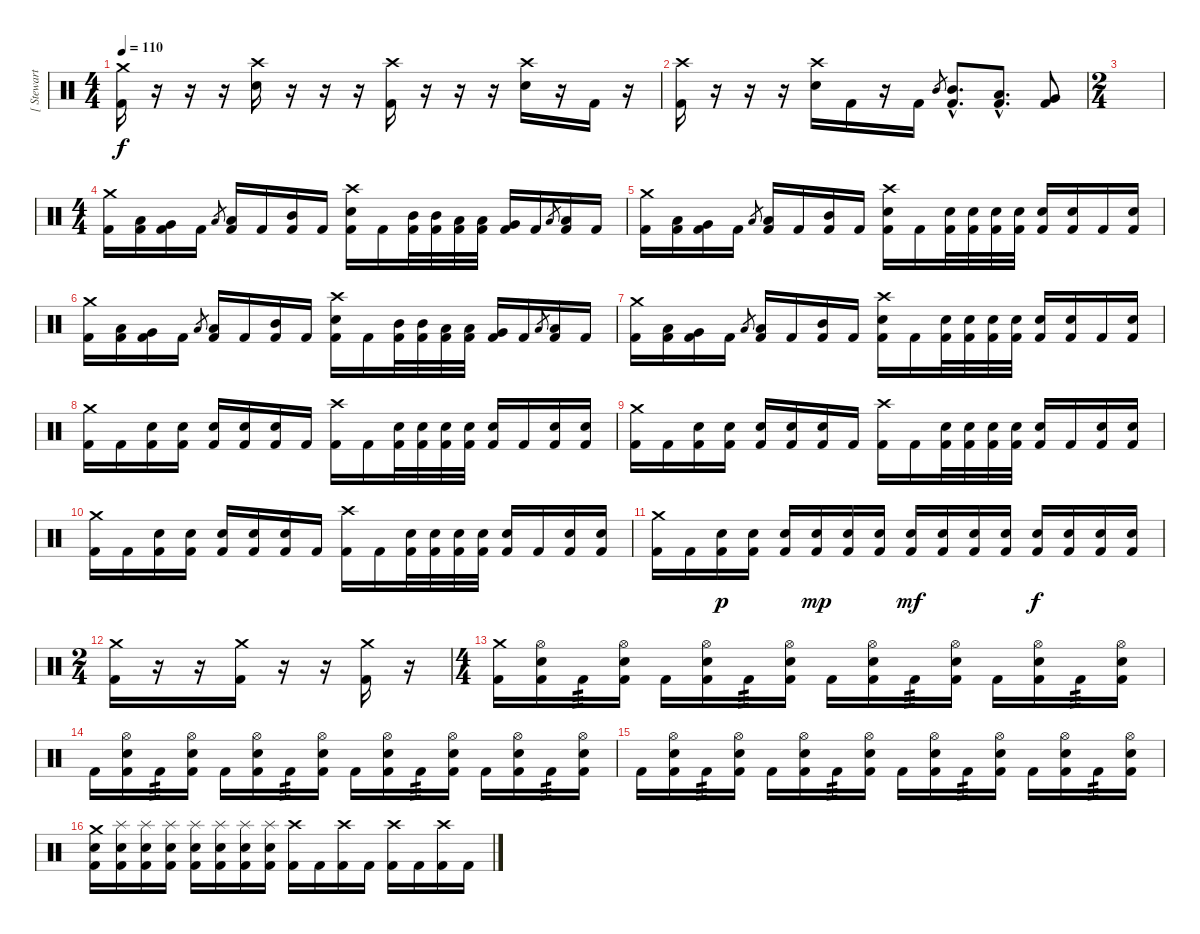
\track ("[ Stewart ]" "[ Stewart ") {instrument percussion}
\staff {score}
\articulation defaults
\ts (4 4)
\tempo 110
\clef neutral
\ks c
("Kick (hit) 2" "Crash medium (hit)").16{dy f} r.16 r.16 r.16 ("Electric Snare (hit)" "Crash high (hit)").16 r.16 r.16 r.16 ("Kick (hit) 2" "Crash high (hit)").16 r.16 r.16 r.16 ("Electric Snare (hit)" "Crash high (hit)").16 r.16 "Kick (hit) 2".16 r.16 |
("Kick (hit) 2" "Crash high (hit)").16 r.16 r.16 r.16 ("Electric Snare (hit)" "Crash high (hit)").16 "Kick (hit) 2".16 r.16 "Kick (hit) 2".16 "Mid Tom (hit)".8{gr} ("Mid Tom (hit)"{hac} "Kick (hit) 2"{hac}).8{d} ("Low Tom (hit)"{hac} "Kick (hit) 2"{hac}).8{d} ("Very Low Tom (hit)" "Kick (hit) 2").8 |
\ts (2 4)
|
\ts (4 4)
("Kick (hit) 2" "Crash medium (hit)").16 ("Kick (hit) 2" "Low Tom (hit)").16 ("Kick (hit) 2" "Very Low Tom (hit)").16 "Kick (hit) 2".16 "Low Tom (hit)".8{gr} ("Kick (hit) 2" "Low Tom (hit)").16 "Kick (hit) 2".16 ("Kick (hit) 2" "Mid Tom (hit)").16 "Kick (hit) 2".16 ("Kick (hit) 2" "Electric Snare (hit)" "Crash high (hit)").16 "Kick (hit) 2".16 ("Kick (hit) 2" "Mid Tom (hit)").32 ("Kick (hit) 2" "Mid Tom (hit)").32 ("Kick (hit) 2" "Low Tom (hit)").32 ("Kick (hit) 2" "Low Tom (hit)").32 ("Kick (hit) 2" "Very Low Tom (hit)").16 "Kick (hit) 2".16 "Low Tom (hit)".8{gr} ("Kick (hit) 2" "Low Tom (hit)").16 "Kick (hit) 2".16 |
("Kick (hit) 2" "Crash medium (hit)").16 ("Kick (hit) 2" "Low Tom (hit)").16 ("Kick (hit) 2" "Very Low Tom (hit)").16 "Kick (hit) 2".16 "Low Tom (hit)".8{gr} ("Kick (hit) 2" "Low Tom (hit)").16 "Kick (hit) 2".16 ("Kick (hit) 2" "Mid Tom (hit)").16 "Kick (hit) 2".16 ("Kick (hit) 2" "Electric Snare (hit)" "Crash high (hit)").16 "Kick (hit) 2".16 ("Kick (hit) 2" "Electric Snare (hit)").32 ("Kick (hit) 2" "Electric Snare (hit)").32 ("Kick (hit) 2" "Electric Snare (hit)").32 ("Kick (hit) 2" "Electric Snare (hit)").32 ("Kick (hit) 2" "Electric Snare (hit)").16 ("Kick (hit) 2" "Electric Snare (hit)").16 "Kick (hit) 2".16 ("Kick (hit) 2" "Electric Snare (hit)").16 |
("Kick (hit) 2" "Crash medium (hit)").16 ("Kick (hit) 2" "Low Tom (hit)").16 ("Kick (hit) 2" "Very Low Tom (hit)").16 "Kick (hit) 2".16 "Low Tom (hit)".8{gr} ("Kick (hit) 2" "Low Tom (hit)").16 "Kick (hit) 2".16 ("Kick (hit) 2" "Mid Tom (hit)").16 "Kick (hit) 2".16 ("Kick (hit) 2" "Electric Snare (hit)" "Crash high (hit)").16 "Kick (hit) 2".16 ("Kick (hit) 2" "Mid Tom (hit)").32 ("Kick (hit) 2" "Mid Tom (hit)").32 ("Kick (hit) 2" "Low Tom (hit)").32 ("Kick (hit) 2" "Low Tom (hit)").32 ("Kick (hit) 2" "Very Low Tom (hit)").16 "Kick (hit) 2".16 "Low Tom (hit)".8{gr} ("Kick (hit) 2" "Low Tom (hit)").16 "Kick (hit) 2".16 |
("Kick (hit) 2" "Crash medium (hit)").16 ("Kick (hit) 2" "Low Tom (hit)").16 ("Kick (hit) 2" "Very Low Tom (hit)").16 "Kick (hit) 2".16 "Low Tom (hit)".8{gr} ("Kick (hit) 2" "Low Tom (hit)").16 "Kick (hit) 2".16 ("Kick (hit) 2" "Mid Tom (hit)").16 "Kick (hit) 2".16 ("Kick (hit) 2" "Electric Snare (hit)" "Crash high (hit)").16 "Kick (hit) 2".16 ("Kick (hit) 2" "Electric Snare (hit)").32 ("Kick (hit) 2" "Electric Snare (hit)").32 ("Kick (hit) 2" "Electric Snare (hit)").32 ("Kick (hit) 2" "Electric Snare (hit)").32 ("Kick (hit) 2" "Electric Snare (hit)").16 ("Kick (hit) 2" "Electric Snare (hit)").16 "Kick (hit) 2".16 ("Kick (hit) 2" "Electric Snare (hit)").16 |
("Kick (hit) 2" "Crash medium (hit)").16 "Kick (hit) 2".16 ("Kick (hit) 2" "Electric Snare (hit)").16 ("Kick (hit) 2" "Electric Snare (hit)").16 ("Kick (hit) 2" "Electric Snare (hit)").16 ("Kick (hit) 2" "Electric Snare (hit)").16 ("Kick (hit) 2" "Electric Snare (hit)").16 "Kick (hit) 2".16 ("Kick (hit) 2" "Crash high (hit)").16 "Kick (hit) 2".16 ("Kick (hit) 2" "Electric Snare (hit)").32 ("Kick (hit) 2" "Electric Snare (hit)").32 ("Kick (hit) 2" "Electric Snare (hit)").32 ("Kick (hit) 2" "Electric Snare (hit)").32 ("Kick (hit) 2" "Electric Snare (hit)").16 "Kick (hit) 2".16 ("Kick (hit) 2" "Electric Snare (hit)").16 ("Kick (hit) 2" "Electric Snare (hit)").16 |
("Kick (hit) 2" "Crash medium (hit)").16 "Kick (hit) 2".16 ("Kick (hit) 2" "Electric Snare (hit)").16 ("Kick (hit) 2" "Electric Snare (hit)").16 ("Kick (hit) 2" "Electric Snare (hit)").16 ("Kick (hit) 2" "Electric Snare (hit)").16 ("Kick (hit) 2" "Electric Snare (hit)").16 "Kick (hit) 2".16 ("Kick (hit) 2" "Crash high (hit)").16 "Kick (hit) 2".16 ("Kick (hit) 2" "Electric Snare (hit)").32 ("Kick (hit) 2" "Electric Snare (hit)").32 ("Kick (hit) 2" "Electric Snare (hit)").32 ("Kick (hit) 2" "Electric Snare (hit)").32 ("Kick (hit) 2" "Electric Snare (hit)").16 "Kick (hit) 2".16 ("Kick (hit) 2" "Electric Snare (hit)").16 ("Kick (hit) 2" "Electric Snare (hit)").16 |
("Kick (hit) 2" "Crash medium (hit)").16 "Kick (hit) 2".16 ("Kick (hit) 2" "Electric Snare (hit)").16 ("Kick (hit) 2" "Electric Snare (hit)").16 ("Kick (hit) 2" "Electric Snare (hit)").16 ("Kick (hit) 2" "Electric Snare (hit)").16 ("Kick (hit) 2" "Electric Snare (hit)").16 "Kick (hit) 2".16 ("Kick (hit) 2" "Crash high (hit)").16 "Kick (hit) 2".16 ("Kick (hit) 2" "Electric Snare (hit)").32 ("Kick (hit) 2" "Electric Snare (hit)").32 ("Kick (hit) 2" "Electric Snare (hit)").32 ("Kick (hit) 2" "Electric Snare (hit)").32 ("Kick (hit) 2" "Electric Snare (hit)").16 "Kick (hit) 2".16 ("Kick (hit) 2" "Electric Snare (hit)").16 ("Kick (hit) 2" "Electric Snare (hit)").16 |
("Kick (hit) 2" "Crash medium (hit)").16 "Kick (hit) 2".16 ("Kick (hit) 2" "Electric Snare (hit)").16{dy p} ("Kick (hit) 2" "Electric Snare (hit)").16 ("Kick (hit) 2" "Electric Snare (hit)").16 ("Kick (hit) 2" "Electric Snare (hit)").16{dy mp} ("Kick (hit) 2" "Electric Snare (hit)").16 ("Kick (hit) 2" "Electric Snare (hit)").16 ("Kick (hit) 2" "Electric Snare (hit)").16{dy mf} ("Kick (hit) 2" "Electric Snare (hit)").16 ("Kick (hit) 2" "Electric Snare (hit)").16 ("Kick (hit) 2" "Electric Snare (hit)").16 ("Kick (hit) 2" "Electric Snare (hit)").16{dy f} ("Kick (hit) 2" "Electric Snare (hit)").16 ("Kick (hit) 2" "Electric Snare (hit)").16 ("Kick (hit) 2" "Electric Snare (hit)").16 |
\ts (2 4)
("Kick (hit) 2" "Crash medium (hit)").16 r.16 r.16 ("Kick (hit) 2" "Crash medium (hit)").16 r.16 r.16 ("Kick (hit) 2" "Crash medium (hit)").16 r.16 |
\ts (4 4)
("Kick (hit) 2" "Crash medium (hit)").16 ("Kick (hit) 2" "Electric Snare (hit)" "Hi-Hat (open)").16 "Kick (hit) 2".16{tp 3} ("Kick (hit) 2" "Electric Snare (hit)" "Hi-Hat (open)").16 "Kick (hit) 2".16 ("Kick (hit) 2" "Electric Snare (hit)" "Hi-Hat (open)").16 "Kick (hit) 2".16{tp 3} ("Kick (hit) 2" "Electric Snare (hit)" "Hi-Hat (open)").16 "Kick (hit) 2".16 ("Kick (hit) 2" "Electric Snare (hit)" "Hi-Hat (open)").16 "Kick (hit) 2".16{tp 3} ("Kick (hit) 2" "Electric Snare (hit)" "Hi-Hat (open)").16 "Kick (hit) 2".16 ("Kick (hit) 2" "Electric Snare (hit)" "Hi-Hat (open)").16 "Kick (hit) 2".16{tp 3} ("Kick (hit) 2" "Electric Snare (hit)" "Hi-Hat (open)").16 |
"Kick (hit) 2".16 ("Kick (hit) 2" "Electric Snare (hit)" "Hi-Hat (open)").16 "Kick (hit) 2".16{tp 3} ("Kick (hit) 2" "Electric Snare (hit)" "Hi-Hat (open)").16 "Kick (hit) 2".16 ("Kick (hit) 2" "Electric Snare (hit)" "Hi-Hat (open)").16 "Kick (hit) 2".16{tp 3} ("Kick (hit) 2" "Electric Snare (hit)" "Hi-Hat (open)").16 "Kick (hit) 2".16 ("Kick (hit) 2" "Electric Snare (hit)" "Hi-Hat (open)").16 "Kick (hit) 2".16{tp 3} ("Kick (hit) 2" "Electric Snare (hit)" "Hi-Hat (open)").16 "Kick (hit) 2".16 ("Kick (hit) 2" "Electric Snare (hit)" "Hi-Hat (open)").16 "Kick (hit) 2".16{tp 3} ("Kick (hit) 2" "Electric Snare (hit)" "Hi-Hat (open)").16 |
"Kick (hit) 2".16 ("Kick (hit) 2" "Electric Snare (hit)" "Hi-Hat (open)").16 "Kick (hit) 2".16{tp 3} ("Kick (hit) 2" "Electric Snare (hit)" "Hi-Hat (open)").16 "Kick (hit) 2".16 ("Kick (hit) 2" "Electric Snare (hit)" "Hi-Hat (open)").16 "Kick (hit) 2".16{tp 3} ("Kick (hit) 2" "Electric Snare (hit)" "Hi-Hat (open)").16 "Kick (hit) 2".16 ("Kick (hit) 2" "Electric Snare (hit)" "Hi-Hat (open)").16 "Kick (hit) 2".16{tp 3} ("Kick (hit) 2" "Electric Snare (hit)" "Hi-Hat (open)").16 "Kick (hit) 2".16 ("Kick (hit) 2" "Electric Snare (hit)" "Hi-Hat (open)").16 "Kick (hit) 2".16{tp 3} ("Kick (hit) 2" "Electric Snare (hit)" "Hi-Hat (open)").16 |
("Kick (hit) 2" "Electric Snare (hit)" "Crash medium (hit)").16 ("Kick (hit) 2" "Electric Snare (hit)" "Splash (hit)").16 ("Kick (hit) 2" "Electric Snare (hit)" "Splash (hit)").16 ("Kick (hit) 2" "Electric Snare (hit)" "Splash (hit)").16 ("Kick (hit) 2" "Electric Snare (hit)" "Splash (hit)").16 ("Kick (hit) 2" "Electric Snare (hit)" "Splash (hit)").16 ("Kick (hit) 2" "Electric Snare (hit)" "Splash (hit)").16 ("Kick (hit) 2" "Electric Snare (hit)" "Splash (hit)").16 ("Kick (hit) 2" "Crash high (hit)").16 "Kick (hit) 2".16 ("Kick (hit) 2" "Crash high (hit)").16 "Kick (hit) 2".16 ("Kick (hit) 2" "Crash high (hit)").16 "Kick (hit) 2".16 ("Kick (hit) 2" "Crash high (hit)").16 "Kick (hit) 2".16
